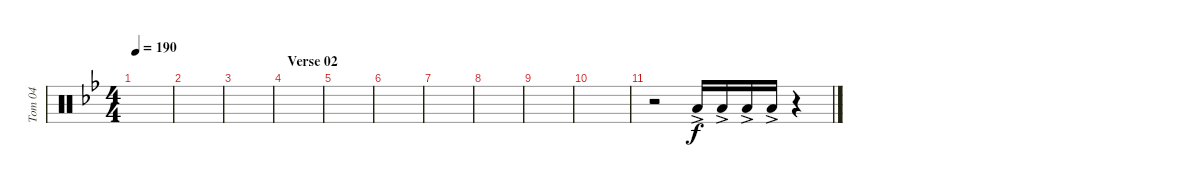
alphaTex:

\track ("Tom 04" "Tom 04") {instrument percussion}
\staff {score}
\articulation defaults
\ts (4 4)
\tempo 190
\clef neutral
\ks bb
|
|
|
\section ("" "Verse 02")
|
|
|
|
|
|
|
r.2 "Low Tom (hit)"{ac}.16 "Low Tom (hit)"{ac}.16 "Low Tom (hit)"{ac}.16 "Low Tom (hit)"{ac}.16 r.4
